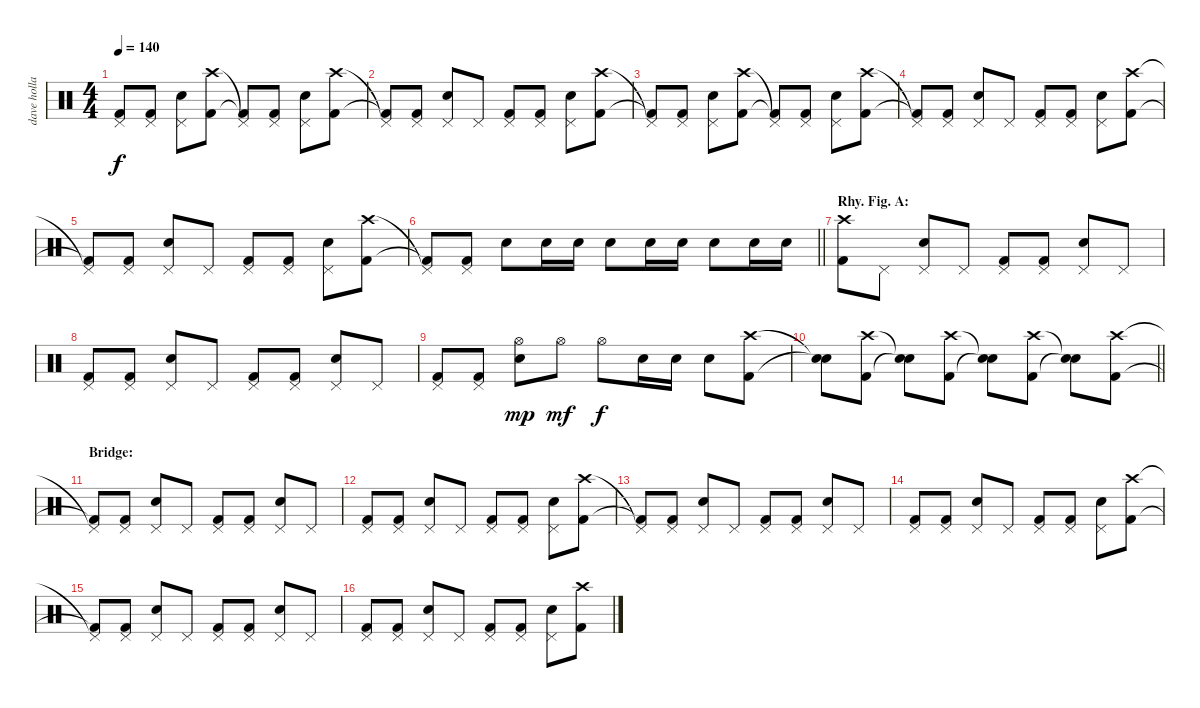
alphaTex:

\track ("dave holland" "dave holla") {instrument percussion}
\staff {score}
\articulation defaults
\ts (4 4)
\tempo 140
\clef neutral
\ks c
("Pedal Hi-Hat (hit)"{t} "Kick (hit) 2"{t}).8{dy f} ("Pedal Hi-Hat (hit)" "Kick (hit) 2").8 ("Pedal Hi-Hat (hit)" "Snare (hit) 2").8 ("Crash high (hit)" "Kick (hit) 2").8 ("Pedal Hi-Hat (hit)"{t} "Kick (hit) 2"{t}).8 ("Pedal Hi-Hat (hit)" "Kick (hit) 2").8 ("Pedal Hi-Hat (hit)" "Snare (hit) 2").8 ("Crash high (hit)" "Kick (hit) 2").8 |
("Pedal Hi-Hat (hit)"{t} "Kick (hit) 2"{t}).8 ("Pedal Hi-Hat (hit)" "Kick (hit) 2").8 ("Pedal Hi-Hat (hit)" "Snare (hit) 2").8 "Pedal Hi-Hat (hit)".8 ("Pedal Hi-Hat (hit)" "Kick (hit) 2").8 ("Pedal Hi-Hat (hit)" "Kick (hit) 2").8 ("Pedal Hi-Hat (hit)" "Snare (hit) 2").8 ("Crash high (hit)" "Kick (hit) 2").8 |
("Pedal Hi-Hat (hit)"{t} "Kick (hit) 2"{t}).8 ("Pedal Hi-Hat (hit)" "Kick (hit) 2").8 ("Pedal Hi-Hat (hit)" "Snare (hit) 2").8 ("Crash high (hit)" "Kick (hit) 2").8 ("Pedal Hi-Hat (hit)"{t} "Kick (hit) 2"{t}).8 ("Pedal Hi-Hat (hit)" "Kick (hit) 2").8 ("Pedal Hi-Hat (hit)" "Snare (hit) 2").8 ("Crash high (hit)" "Kick (hit) 2").8 |
("Pedal Hi-Hat (hit)"{t} "Kick (hit) 2"{t}).8 ("Pedal Hi-Hat (hit)" "Kick (hit) 2").8 ("Pedal Hi-Hat (hit)" "Snare (hit) 2").8 "Pedal Hi-Hat (hit)".8 ("Pedal Hi-Hat (hit)" "Kick (hit) 2").8 ("Pedal Hi-Hat (hit)" "Kick (hit) 2").8 ("Pedal Hi-Hat (hit)" "Snare (hit) 2").8 ("Crash high (hit)" "Kick (hit) 2").8 |
("Pedal Hi-Hat (hit)"{t} "Kick (hit) 2"{t}).8 ("Pedal Hi-Hat (hit)" "Kick (hit) 2").8 ("Pedal Hi-Hat (hit)" "Snare (hit) 2").8 "Pedal Hi-Hat (hit)".8 ("Pedal Hi-Hat (hit)" "Kick (hit) 2").8 ("Pedal Hi-Hat (hit)" "Kick (hit) 2").8 ("Pedal Hi-Hat (hit)" "Snare (hit) 2").8 ("Crash high (hit)" "Kick (hit) 2").8 |
\barLineRight lightlight
("Pedal Hi-Hat (hit)"{t} "Kick (hit) 2"{t}).8 ("Pedal Hi-Hat (hit)" "Kick (hit) 2").8 "Snare (hit) 2".8 "Snare (hit) 2".16 "Snare (hit) 2".16 "Snare (hit) 2".8 "Snare (hit) 2".16 "Snare (hit) 2".16 "Snare (hit) 2".8 "Snare (hit) 2".16 "Snare (hit) 2".16 |
\section ("" "Rhy. Fig. A:")
("Crash high (hit)" "Kick (hit) 2").8 "Pedal Hi-Hat (hit)".8 ("Pedal Hi-Hat (hit)" "Snare (hit) 2").8 "Pedal Hi-Hat (hit)".8 ("Pedal Hi-Hat (hit)" "Kick (hit) 2").8 ("Pedal Hi-Hat (hit)" "Kick (hit) 2").8 ("Pedal Hi-Hat (hit)" "Snare (hit) 2").8 "Pedal Hi-Hat (hit)".8 |
("Pedal Hi-Hat (hit)" "Kick (hit) 2").8 ("Pedal Hi-Hat (hit)" "Kick (hit) 2").8 ("Pedal Hi-Hat (hit)" "Snare (hit) 2").8 "Pedal Hi-Hat (hit)".8 ("Pedal Hi-Hat (hit)" "Kick (hit) 2").8 ("Pedal Hi-Hat (hit)" "Kick (hit) 2").8 ("Pedal Hi-Hat (hit)" "Snare (hit) 2").8 "Pedal Hi-Hat (hit)".8 |
("Pedal Hi-Hat (hit)" "Kick (hit) 2").8 ("Pedal Hi-Hat (hit)" "Kick (hit) 2").8 ("Hi-Hat (open)" "Snare (hit) 2").8{dy mp} "Hi-Hat (open)".8{dy mf} "Hi-Hat (open)".8{dy f} "Snare (hit) 2".16 "Snare (hit) 2".16 "Snare (hit) 2".8 ("Crash high (hit)" "Kick (hit) 2").8 |
\barLineRight lightlight
("Snare (hit)"{t} "Snare (hit)"{t}).8 ("Crash high (hit)" "Kick (hit) 2").8 ("Snare (hit)"{t} "Snare (hit)"{t}).8 ("Crash high (hit)" "Kick (hit) 2").8 ("Snare (hit)"{t} "Snare (hit)"{t}).8 ("Crash high (hit)" "Kick (hit) 2").8 ("Snare (hit)"{t} "Snare (hit)"{t}).8 ("Crash high (hit)" "Kick (hit) 2").8 |
\section ("" "Bridge:")
("Pedal Hi-Hat (hit)"{t} "Kick (hit) 2"{t}).8 ("Pedal Hi-Hat (hit)" "Kick (hit) 2").8 ("Pedal Hi-Hat (hit)" "Snare (hit) 2").8 "Pedal Hi-Hat (hit)".8 ("Pedal Hi-Hat (hit)" "Kick (hit) 2").8 ("Pedal Hi-Hat (hit)" "Kick (hit) 2").8 ("Pedal Hi-Hat (hit)" "Snare (hit) 2").8 "Pedal Hi-Hat (hit)".8 |
("Pedal Hi-Hat (hit)" "Kick (hit) 2").8 ("Pedal Hi-Hat (hit)" "Kick (hit) 2").8 ("Pedal Hi-Hat (hit)" "Snare (hit) 2").8 "Pedal Hi-Hat (hit)".8 ("Pedal Hi-Hat (hit)" "Kick (hit) 2").8 ("Pedal Hi-Hat (hit)" "Kick (hit) 2").8 ("Pedal Hi-Hat (hit)" "Snare (hit) 2").8 ("Crash high (hit)" "Kick (hit) 2").8 |
("Pedal Hi-Hat (hit)"{t} "Kick (hit) 2"{t}).8 ("Pedal Hi-Hat (hit)" "Kick (hit) 2").8 ("Pedal Hi-Hat (hit)" "Snare (hit) 2").8 "Pedal Hi-Hat (hit)".8 ("Pedal Hi-Hat (hit)" "Kick (hit) 2").8 ("Pedal Hi-Hat (hit)" "Kick (hit) 2").8 ("Pedal Hi-Hat (hit)" "Snare (hit) 2").8 "Pedal Hi-Hat (hit)".8 |
("Pedal Hi-Hat (hit)" "Kick (hit) 2").8 ("Pedal Hi-Hat (hit)" "Kick (hit) 2").8 ("Pedal Hi-Hat (hit)" "Snare (hit) 2").8 "Pedal Hi-Hat (hit)".8 ("Pedal Hi-Hat (hit)" "Kick (hit) 2").8 ("Pedal Hi-Hat (hit)" "Kick (hit) 2").8 ("Pedal Hi-Hat (hit)" "Snare (hit) 2").8 ("Crash high (hit)" "Kick (hit) 2").8 |
("Pedal Hi-Hat (hit)"{t} "Kick (hit) 2"{t}).8 ("Pedal Hi-Hat (hit)" "Kick (hit) 2").8 ("Pedal Hi-Hat (hit)" "Snare (hit) 2").8 "Pedal Hi-Hat (hit)".8 ("Pedal Hi-Hat (hit)" "Kick (hit) 2").8 ("Pedal Hi-Hat (hit)" "Kick (hit) 2").8 ("Pedal Hi-Hat (hit)" "Snare (hit) 2").8 "Pedal Hi-Hat (hit)".8 |
("Pedal Hi-Hat (hit)" "Kick (hit) 2").8 ("Pedal Hi-Hat (hit)" "Kick (hit) 2").8 ("Pedal Hi-Hat (hit)" "Snare (hit) 2").8 "Pedal Hi-Hat (hit)".8 ("Pedal Hi-Hat (hit)" "Kick (hit) 2").8 ("Pedal Hi-Hat (hit)" "Kick (hit) 2").8 ("Pedal Hi-Hat (hit)" "Snare (hit) 2").8 ("Crash high (hit)" "Kick (hit) 2").8
